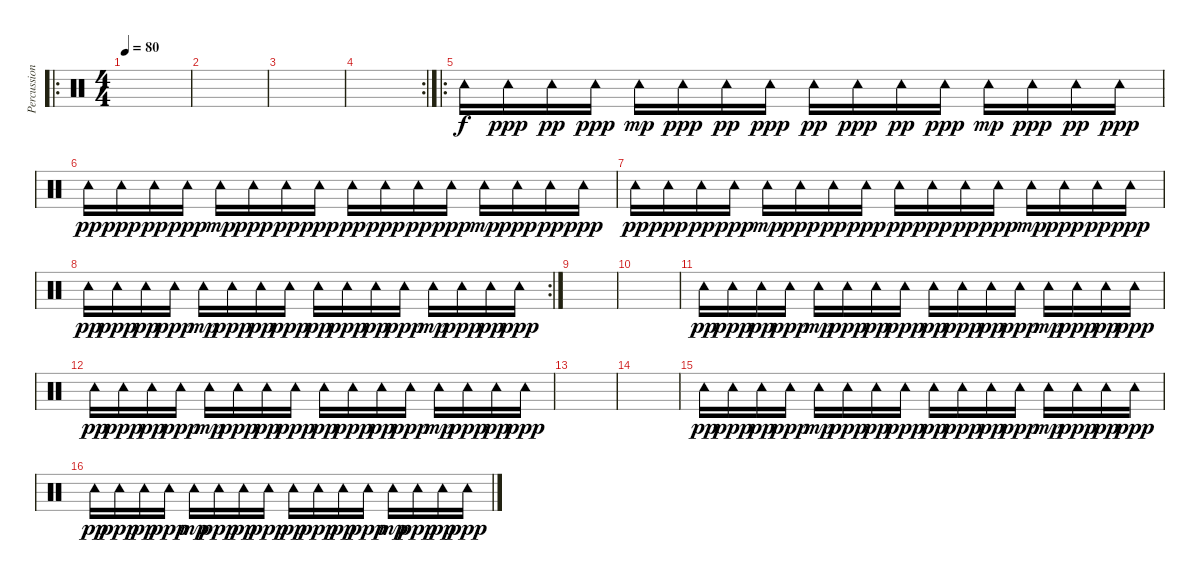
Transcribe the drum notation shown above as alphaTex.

\track ("Percussion" "Percussion") {instrument percussion}
\staff {score}
\articulation defaults
\ro
\ts (4 4)
\tempo 80
\clef neutral
\ks c
|
|
|
\rc 2
|
\ro "Tambourine (hit)".16 "Tambourine (hit)".16{dy ppp} "Tambourine (hit)".16{dy pp} "Tambourine (hit)".16{dy ppp} "Tambourine (hit)".16{dy mp} "Tambourine (hit)".16{dy ppp} "Tambourine (hit)".16{dy pp} "Tambourine (hit)".16{dy ppp} "Tambourine (hit)".16{dy pp} "Tambourine (hit)".16{dy ppp} "Tambourine (hit)".16{dy pp} "Tambourine (hit)".16{dy ppp} "Tambourine (hit)".16{dy mp} "Tambourine (hit)".16{dy ppp} "Tambourine (hit)".16{dy pp} "Tambourine (hit)".16{dy ppp}
|
"Tambourine (hit)".16{dy pp} "Tambourine (hit)".16{dy ppp} "Tambourine (hit)".16{dy pp} "Tambourine (hit)".16{dy ppp} "Tambourine (hit)".16{dy mp} "Tambourine (hit)".16{dy ppp} "Tambourine (hit)".16{dy pp} "Tambourine (hit)".16{dy ppp} "Tambourine (hit)".16{dy pp} "Tambourine (hit)".16{dy ppp} "Tambourine (hit)".16{dy pp} "Tambourine (hit)".16{dy ppp} "Tambourine (hit)".16{dy mp} "Tambourine (hit)".16{dy ppp} "Tambourine (hit)".16{dy pp} "Tambourine (hit)".16{dy ppp} |
"Tambourine (hit)".16{dy pp} "Tambourine (hit)".16{dy ppp} "Tambourine (hit)".16{dy pp} "Tambourine (hit)".16{dy ppp} "Tambourine (hit)".16{dy mp} "Tambourine (hit)".16{dy ppp} "Tambourine (hit)".16{dy pp} "Tambourine (hit)".16{dy ppp} "Tambourine (hit)".16{dy pp} "Tambourine (hit)".16{dy ppp} "Tambourine (hit)".16{dy pp} "Tambourine (hit)".16{dy ppp} "Tambourine (hit)".16{dy mp} "Tambourine (hit)".16{dy ppp} "Tambourine (hit)".16{dy pp} "Tambourine (hit)".16{dy ppp} |
\rc 2 "Tambourine (hit)".16{dy pp} "Tambourine (hit)".16{dy ppp} "Tambourine (hit)".16{dy pp} "Tambourine (hit)".16{dy ppp} "Tambourine (hit)".16{dy mp} "Tambourine (hit)".16{dy ppp} "Tambourine (hit)".16{dy pp} "Tambourine (hit)".16{dy ppp} "Tambourine (hit)".16{dy pp} "Tambourine (hit)".16{dy ppp} "Tambourine (hit)".16{dy pp} "Tambourine (hit)".16{dy ppp} "Tambourine (hit)".16{dy mp} "Tambourine (hit)".16{dy ppp} "Tambourine (hit)".16{dy pp} "Tambourine (hit)".16{dy ppp}
|
|
|
"Tambourine (hit)".16{dy pp} "Tambourine (hit)".16{dy ppp} "Tambourine (hit)".16{dy pp} "Tambourine (hit)".16{dy ppp} "Tambourine (hit)".16{dy mp} "Tambourine (hit)".16{dy ppp} "Tambourine (hit)".16{dy pp} "Tambourine (hit)".16{dy ppp} "Tambourine (hit)".16{dy pp} "Tambourine (hit)".16{dy ppp} "Tambourine (hit)".16{dy pp} "Tambourine (hit)".16{dy ppp} "Tambourine (hit)".16{dy mp} "Tambourine (hit)".16{dy ppp} "Tambourine (hit)".16{dy pp} "Tambourine (hit)".16{dy ppp} |
"Tambourine (hit)".16{dy pp} "Tambourine (hit)".16{dy ppp} "Tambourine (hit)".16{dy pp} "Tambourine (hit)".16{dy ppp} "Tambourine (hit)".16{dy mp} "Tambourine (hit)".16{dy ppp} "Tambourine (hit)".16{dy pp} "Tambourine (hit)".16{dy ppp} "Tambourine (hit)".16{dy pp} "Tambourine (hit)".16{dy ppp} "Tambourine (hit)".16{dy pp} "Tambourine (hit)".16{dy ppp} "Tambourine (hit)".16{dy mp} "Tambourine (hit)".16{dy ppp} "Tambourine (hit)".16{dy pp} "Tambourine (hit)".16{dy ppp} |
|
|
"Tambourine (hit)".16{dy pp} "Tambourine (hit)".16{dy ppp} "Tambourine (hit)".16{dy pp} "Tambourine (hit)".16{dy ppp} "Tambourine (hit)".16{dy mp} "Tambourine (hit)".16{dy ppp} "Tambourine (hit)".16{dy pp} "Tambourine (hit)".16{dy ppp} "Tambourine (hit)".16{dy pp} "Tambourine (hit)".16{dy ppp} "Tambourine (hit)".16{dy pp} "Tambourine (hit)".16{dy ppp} "Tambourine (hit)".16{dy mp} "Tambourine (hit)".16{dy ppp} "Tambourine (hit)".16{dy pp} "Tambourine (hit)".16{dy ppp} |
"Tambourine (hit)".16{dy pp} "Tambourine (hit)".16{dy ppp} "Tambourine (hit)".16{dy pp} "Tambourine (hit)".16{dy ppp} "Tambourine (hit)".16{dy mp} "Tambourine (hit)".16{dy ppp} "Tambourine (hit)".16{dy pp} "Tambourine (hit)".16{dy ppp} "Tambourine (hit)".16{dy pp} "Tambourine (hit)".16{dy ppp} "Tambourine (hit)".16{dy pp} "Tambourine (hit)".16{dy ppp} "Tambourine (hit)".16{dy mp} "Tambourine (hit)".16{dy ppp} "Tambourine (hit)".16{dy pp} "Tambourine (hit)".16{dy ppp}
